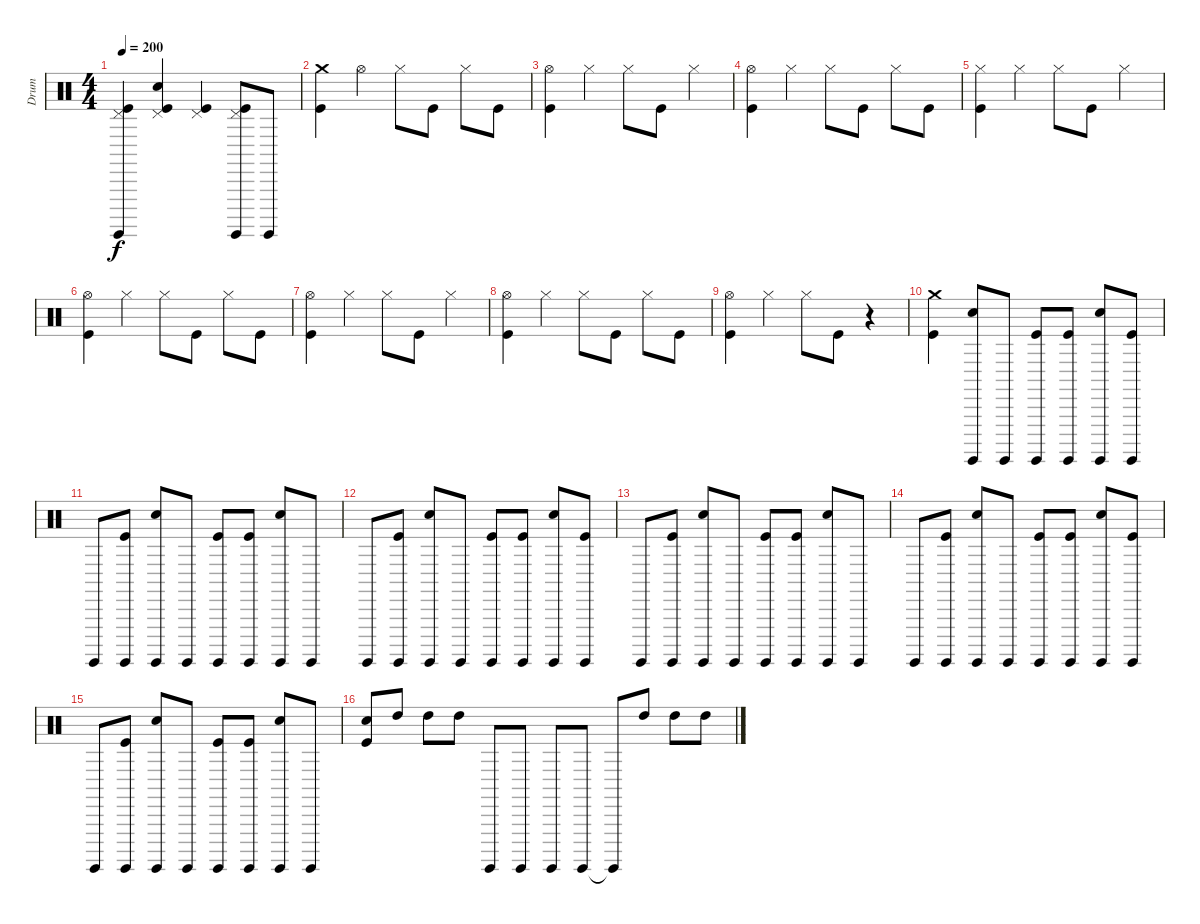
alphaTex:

\track ("Drum" "Drum") {instrument percussion}
\staff {score}
\articulation defaults
\ts (4 4)
\tempo 200
\clef neutral
\ks c
("Pedal Hi-Hat (hit)" "Surdo (hit)" "Kick (hit)").4{dy f} ("Pedal Hi-Hat (hit)" "Snare (hit) 2" "Kick (hit)").4 ("Pedal Hi-Hat (hit)" "Kick (hit)").4 ("Pedal Hi-Hat (hit)" "Surdo (hit)" "Kick (hit)").8 "Surdo (hit)".8 |
("Crash medium (hit)" "Kick (hit)").4 "Hi-Hat (open)".4 "Hi-Hat (closed)".8 "Kick (hit)".8 "Hi-Hat (closed)".8 "Kick (hit)".8 |
("Hi-Hat (open)" "Kick (hit)").4 "Hi-Hat (closed)".4 "Hi-Hat (closed)".8 "Kick (hit)".8 "Hi-Hat (closed)".4 |
("Hi-Hat (open)" "Kick (hit)").4 "Hi-Hat (closed)".4 "Hi-Hat (closed)".8 "Kick (hit)".8 "Hi-Hat (closed)".8 "Kick (hit)".8 |
("Hi-Hat (closed)" "Kick (hit)").4 "Hi-Hat (closed)".4 "Hi-Hat (closed)".8 "Kick (hit)".8 "Hi-Hat (closed)".4 |
("Hi-Hat (open)" "Kick (hit)").4 "Hi-Hat (closed)".4 "Hi-Hat (closed)".8 "Kick (hit)".8 "Hi-Hat (closed)".8 "Kick (hit)".8 |
("Hi-Hat (open)" "Kick (hit)").4 "Hi-Hat (closed)".4 "Hi-Hat (closed)".8 "Kick (hit)".8 "Hi-Hat (closed)".4 |
("Hi-Hat (open)" "Kick (hit)").4 "Hi-Hat (closed)".4 "Hi-Hat (closed)".8 "Kick (hit)".8 "Hi-Hat (closed)".8 "Kick (hit)".8 |
("Hi-Hat (open)" "Kick (hit)").4 "Hi-Hat (closed)".4 "Hi-Hat (closed)".8 "Kick (hit)".8 r.4 |
("Crash medium (hit)" "Kick (hit)").4 ("Snare (hit) 2" "Surdo (hit)").8 "Surdo (hit)".8 ("Surdo (hit)" "Kick (hit)").8 ("Surdo (hit)" "Kick (hit)").8 ("Snare (hit) 2" "Surdo (hit)").8 ("Surdo (hit)" "Kick (hit)").8 |
"Surdo (hit)".8 ("Surdo (hit)" "Kick (hit)").8 ("Snare (hit) 2" "Surdo (hit)").8 "Surdo (hit)".8 ("Surdo (hit)" "Kick (hit)").8 ("Surdo (hit)" "Kick (hit)").8 ("Snare (hit) 2" "Surdo (hit)").8 "Surdo (hit)".8 |
"Surdo (hit)".8 ("Surdo (hit)" "Kick (hit)").8 ("Snare (hit) 2" "Surdo (hit)").8 "Surdo (hit)".8 ("Surdo (hit)" "Kick (hit)").8 ("Surdo (hit)" "Kick (hit)").8 ("Snare (hit) 2" "Surdo (hit)").8 ("Surdo (hit)" "Kick (hit)").8 |
"Surdo (hit)".8 ("Surdo (hit)" "Kick (hit)").8 ("Snare (hit) 2" "Surdo (hit)").8 "Surdo (hit)".8 ("Surdo (hit)" "Kick (hit)").8 ("Surdo (hit)" "Kick (hit)").8 ("Snare (hit) 2" "Surdo (hit)").8 "Surdo (hit)".8 |
"Surdo (hit)".8 ("Surdo (hit)" "Kick (hit)").8 ("Snare (hit) 2" "Surdo (hit)").8 "Surdo (hit)".8 ("Surdo (hit)" "Kick (hit)").8 ("Surdo (hit)" "Kick (hit)").8 ("Snare (hit) 2" "Surdo (hit)").8 ("Surdo (hit)" "Kick (hit)").8 |
"Surdo (hit)".8 ("Surdo (hit)" "Kick (hit)").8 ("Snare (hit) 2" "Surdo (hit)").8 "Surdo (hit)".8 ("Surdo (hit)" "Kick (hit)").8 ("Surdo (hit)" "Kick (hit)").8 ("Snare (hit) 2" "Surdo (hit)").8 "Surdo (hit)".8 |
("Snare (hit) 2" "Kick (hit)").8 "High Tom (hit)".8 "High Tom (hit)".8 "High Tom (hit)".8 "Surdo (hit)".8 "Surdo (hit)".8 "Surdo (hit)".8 "Surdo (hit)".8 "Surdo (hit)"{t}.8 "High Tom (hit)".8 "High Tom (hit)".8 "High Tom (hit)".8
